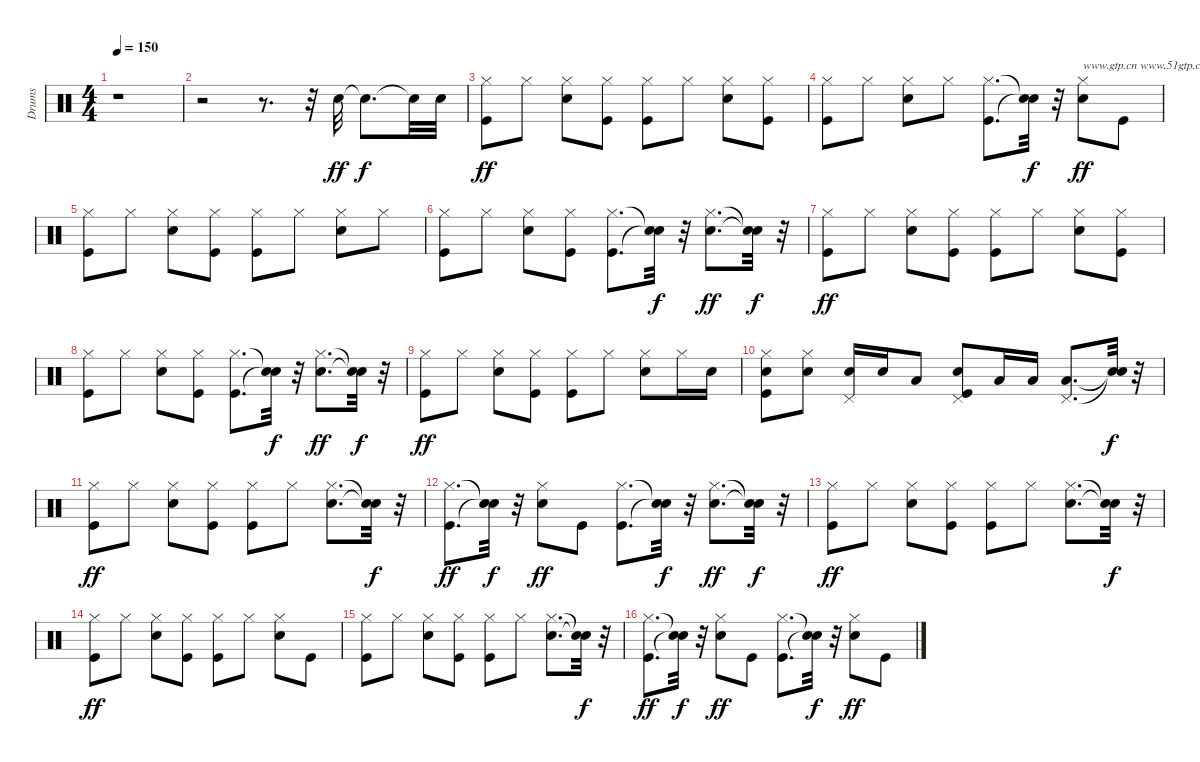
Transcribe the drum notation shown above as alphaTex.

\track ("Drums" "Drums") {instrument percussion}
\staff {score}
\articulation defaults
\ts (4 4)
\tempo 150
\clef neutral
\ks c
r.1{dy ff} |
r.2 r.8{d} r.32 "Snare (hit) 2".32 "Snare (hit)"{t}.8{d dy f} "Snare (hit) 2"{t}.32 "Snare (hit) 2".32 |
("Kick (hit)" "Hi-Hat (closed)").8{dy ff} "Hi-Hat (closed)".8 ("Snare (hit) 2" "Hi-Hat (closed)").8 ("Kick (hit)" "Hi-Hat (closed)").8 ("Kick (hit)" "Hi-Hat (closed)").8 "Hi-Hat (closed)".8 ("Snare (hit) 2" "Hi-Hat (closed)").8 ("Kick (hit)" "Hi-Hat (closed)").8 |
("Kick (hit)" "Hi-Hat (closed)").8 "Hi-Hat (closed)".8 ("Snare (hit) 2" "Hi-Hat (closed)").8 "Hi-Hat (closed)".8 ("Kick (hit)" "Hi-Hat (closed)").8{d} ("Snare (hit)"{t} "Snare (hit)"{t}).32{dy f} r.32 ("Snare (hit) 2" "Hi-Hat (closed)").8{txt "www.gtp.cn www.51gtp.com联合为您提供优秀的GTP!" dy ff} "Kick (hit)".8 |
("Kick (hit)" "Hi-Hat (closed)").8 "Hi-Hat (closed)".8 ("Snare (hit) 2" "Hi-Hat (closed)").8 ("Kick (hit)" "Hi-Hat (closed)").8 ("Kick (hit)" "Hi-Hat (closed)").8 "Hi-Hat (closed)".8 ("Snare (hit) 2" "Hi-Hat (closed)").8 "Hi-Hat (closed)".8 |
("Kick (hit)" "Hi-Hat (closed)").8 "Hi-Hat (closed)".8 ("Snare (hit) 2" "Hi-Hat (closed)").8 ("Kick (hit)" "Hi-Hat (closed)").8 ("Kick (hit)" "Hi-Hat (closed)").8{d} ("Snare (hit)"{t} "Snare (hit)"{t}).32{dy f} r.32 ("Snare (hit) 2" "Hi-Hat (closed)").8{d dy ff} ("Snare (hit)"{t} "Snare (hit)"{t}).32{dy f} r.32 |
("Kick (hit)" "Hi-Hat (closed)").8{dy ff} "Hi-Hat (closed)".8 ("Snare (hit) 2" "Hi-Hat (closed)").8 ("Kick (hit)" "Hi-Hat (closed)").8 ("Kick (hit)" "Hi-Hat (closed)").8 "Hi-Hat (closed)".8 ("Snare (hit) 2" "Hi-Hat (closed)").8 ("Kick (hit)" "Hi-Hat (closed)").8 |
("Kick (hit)" "Hi-Hat (closed)").8 "Hi-Hat (closed)".8 ("Snare (hit) 2" "Hi-Hat (closed)").8 ("Kick (hit)" "Hi-Hat (closed)").8 ("Kick (hit)" "Hi-Hat (closed)").8{d} ("Snare (hit)"{t} "Snare (hit)"{t}).32{dy f} r.32 ("Snare (hit) 2" "Hi-Hat (closed)").8{d dy ff} ("Snare (hit)"{t} "Snare (hit)"{t}).32{dy f} r.32 |
("Kick (hit)" "Hi-Hat (closed)").8{dy ff} "Hi-Hat (closed)".8 ("Snare (hit) 2" "Hi-Hat (closed)").8 ("Kick (hit)" "Hi-Hat (closed)").8 ("Kick (hit)" "Hi-Hat (closed)").8 "Hi-Hat (closed)".8 ("Snare (hit) 2" "Hi-Hat (closed)").8 "Hi-Hat (closed)".16 "Snare (hit) 2".16 |
("Kick (hit)" "Snare (hit) 2" "Hi-Hat (closed)").8 ("Snare (hit) 2" "Hi-Hat (closed)").8 ("Snare (hit) 2" "Pedal Hi-Hat (hit)").16 "Snare (hit) 2".16 "Low Floor Tom (hit)".8 ("Kick (hit)" "Snare (hit) 2" "Pedal Hi-Hat (hit)").8 "Low Tom (hit)".16 "Low Tom (hit)".16 ("Low Floor Tom (hit)" "Pedal Hi-Hat (hit)").8{d} ("Snare (hit)"{t} "Snare (hit)"{t}).32{dy f} r.32 |
("Kick (hit)" "Hi-Hat (closed)").8{dy ff} "Hi-Hat (closed)".8 ("Snare (hit) 2" "Hi-Hat (closed)").8 ("Kick (hit)" "Hi-Hat (closed)").8 ("Kick (hit)" "Hi-Hat (closed)").8 "Hi-Hat (closed)".8 ("Snare (hit) 2" "Hi-Hat (closed)").8{d} ("Snare (hit)"{t} "Snare (hit)"{t}).32{dy f} r.32 |
("Kick (hit)" "Hi-Hat (closed)").8{d dy ff} ("Snare (hit)"{t} "Snare (hit)"{t}).32{dy f} r.32 ("Snare (hit) 2" "Hi-Hat (closed)").8{dy ff} "Kick (hit)".8 ("Kick (hit)" "Hi-Hat (closed)").8{d} ("Snare (hit)"{t} "Snare (hit)"{t}).32{dy f} r.32 ("Snare (hit) 2" "Hi-Hat (closed)").8{d dy ff} ("Snare (hit)"{t} "Snare (hit)"{t}).32{dy f} r.32 |
("Kick (hit)" "Hi-Hat (closed)").8{dy ff} "Hi-Hat (closed)".8 ("Snare (hit) 2" "Hi-Hat (closed)").8 ("Kick (hit)" "Hi-Hat (closed)").8 ("Kick (hit)" "Hi-Hat (closed)").8 "Hi-Hat (closed)".8 ("Snare (hit) 2" "Hi-Hat (closed)").8{d} ("Snare (hit)"{t} "Snare (hit)"{t}).32{dy f} r.32 |
("Kick (hit)" "Hi-Hat (closed)").8{dy ff} "Hi-Hat (closed)".8 ("Snare (hit) 2" "Hi-Hat (closed)").8 ("Kick (hit)" "Hi-Hat (closed)").8 ("Kick (hit)" "Hi-Hat (closed)").8 "Hi-Hat (closed)".8 ("Snare (hit) 2" "Hi-Hat (closed)").8 "Kick (hit)".8 |
("Kick (hit)" "Hi-Hat (closed)").8 "Hi-Hat (closed)".8 ("Snare (hit) 2" "Hi-Hat (closed)").8 ("Kick (hit)" "Hi-Hat (closed)").8 ("Kick (hit)" "Hi-Hat (closed)").8 "Hi-Hat (closed)".8 ("Snare (hit) 2" "Hi-Hat (closed)").8{d} ("Snare (hit)"{t} "Snare (hit)"{t}).32{dy f} r.32 |
("Kick (hit)" "Hi-Hat (closed)").8{d dy ff} ("Snare (hit)"{t} "Snare (hit)"{t}).32{dy f} r.32 ("Snare (hit) 2" "Hi-Hat (closed)").8{dy ff} "Kick (hit)".8 ("Kick (hit)" "Hi-Hat (closed)").8{d} ("Snare (hit)"{t} "Snare (hit)"{t}).32{dy f} r.32 ("Snare (hit) 2" "Hi-Hat (closed)").8{dy ff} "Kick (hit)".8
